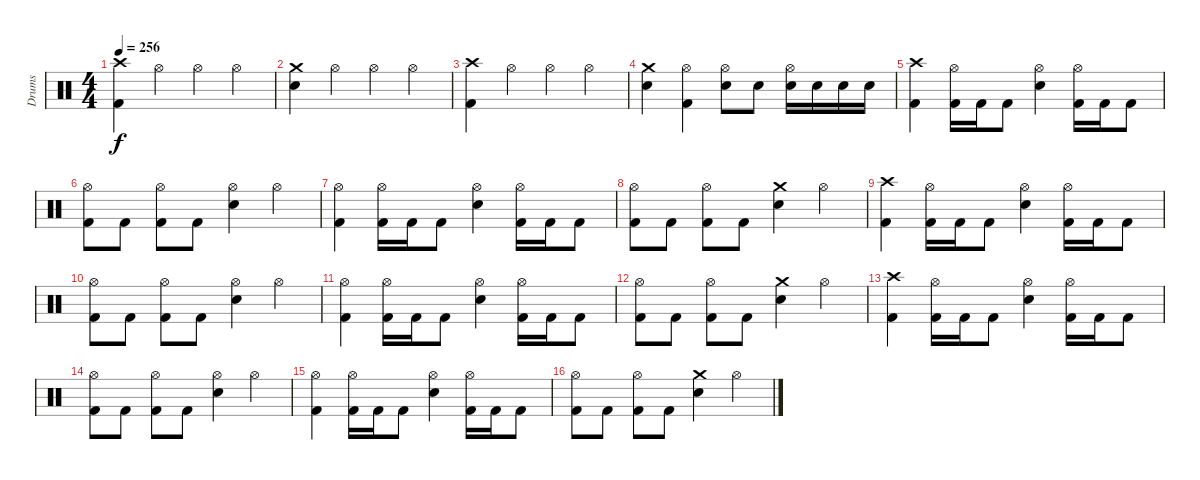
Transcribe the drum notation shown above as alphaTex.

\track ("Drums" "Drums") {instrument percussion}
\staff {score}
\articulation defaults
\ts (4 4)
\tempo 256
\clef neutral
\ks c
("Crash high (hit)" "Kick (hit) 2").4{dy f} "Hi-Hat (open)".4 "Hi-Hat (open)".4 "Hi-Hat (open)".4 |
("Crash medium (hit)" "Electric Snare (hit)").4 "Hi-Hat (open)".4 "Hi-Hat (open)".4 "Hi-Hat (open)".4 |
("Crash high (hit)" "Kick (hit) 2").4 "Hi-Hat (open)".4 "Hi-Hat (open)".4 "Hi-Hat (open)".4 |
("Crash medium (hit)" "Electric Snare (hit)").4 ("Hi-Hat (open)" "Kick (hit) 2").4 ("Hi-Hat (open)" "Electric Snare (hit)").8 "Electric Snare (hit)".8 ("Hi-Hat (open)" "Electric Snare (hit)").16 "Electric Snare (hit)".16 "Electric Snare (hit)".16 "Electric Snare (hit)".16 |
("Crash high (hit)" "Kick (hit) 2").4 ("Hi-Hat (open)" "Kick (hit) 2").16 "Kick (hit) 2".16 "Kick (hit) 2".8 ("Hi-Hat (open)" "Electric Snare (hit)").4 ("Hi-Hat (open)" "Kick (hit) 2").16 "Kick (hit) 2".16 "Kick (hit) 2".8 |
("Hi-Hat (open)" "Kick (hit) 2").8 "Kick (hit) 2".8 ("Hi-Hat (open)" "Kick (hit) 2").8 "Kick (hit) 2".8 ("Hi-Hat (open)" "Electric Snare (hit)").4 "Hi-Hat (open)".4 |
("Hi-Hat (open)" "Kick (hit) 2").4 ("Hi-Hat (open)" "Kick (hit) 2").16 "Kick (hit) 2".16 "Kick (hit) 2".8 ("Hi-Hat (open)" "Electric Snare (hit)").4 ("Hi-Hat (open)" "Kick (hit) 2").16 "Kick (hit) 2".16 "Kick (hit) 2".8 |
("Hi-Hat (open)" "Kick (hit) 2").8 "Kick (hit) 2".8 ("Hi-Hat (open)" "Kick (hit) 2").8 "Kick (hit) 2".8 ("Crash medium (hit)" "Electric Snare (hit)").4 "Hi-Hat (open)".4 |
("Crash high (hit)" "Kick (hit) 2").4 ("Hi-Hat (open)" "Kick (hit) 2").16 "Kick (hit) 2".16 "Kick (hit) 2".8 ("Hi-Hat (open)" "Electric Snare (hit)").4 ("Hi-Hat (open)" "Kick (hit) 2").16 "Kick (hit) 2".16 "Kick (hit) 2".8 |
("Hi-Hat (open)" "Kick (hit) 2").8 "Kick (hit) 2".8 ("Hi-Hat (open)" "Kick (hit) 2").8 "Kick (hit) 2".8 ("Hi-Hat (open)" "Electric Snare (hit)").4 "Hi-Hat (open)".4 |
("Hi-Hat (open)" "Kick (hit) 2").4 ("Hi-Hat (open)" "Kick (hit) 2").16 "Kick (hit) 2".16 "Kick (hit) 2".8 ("Hi-Hat (open)" "Electric Snare (hit)").4 ("Hi-Hat (open)" "Kick (hit) 2").16 "Kick (hit) 2".16 "Kick (hit) 2".8 |
("Hi-Hat (open)" "Kick (hit) 2").8 "Kick (hit) 2".8 ("Hi-Hat (open)" "Kick (hit) 2").8 "Kick (hit) 2".8 ("Crash medium (hit)" "Electric Snare (hit)").4 "Hi-Hat (open)".4 |
("Crash high (hit)" "Kick (hit) 2").4 ("Hi-Hat (open)" "Kick (hit) 2").16 "Kick (hit) 2".16 "Kick (hit) 2".8 ("Hi-Hat (open)" "Electric Snare (hit)").4 ("Hi-Hat (open)" "Kick (hit) 2").16 "Kick (hit) 2".16 "Kick (hit) 2".8 |
("Hi-Hat (open)" "Kick (hit) 2").8 "Kick (hit) 2".8 ("Hi-Hat (open)" "Kick (hit) 2").8 "Kick (hit) 2".8 ("Hi-Hat (open)" "Electric Snare (hit)").4 "Hi-Hat (open)".4 |
("Hi-Hat (open)" "Kick (hit) 2").4 ("Hi-Hat (open)" "Kick (hit) 2").16 "Kick (hit) 2".16 "Kick (hit) 2".8 ("Hi-Hat (open)" "Electric Snare (hit)").4 ("Hi-Hat (open)" "Kick (hit) 2").16 "Kick (hit) 2".16 "Kick (hit) 2".8 |
("Hi-Hat (open)" "Kick (hit) 2").8 "Kick (hit) 2".8 ("Hi-Hat (open)" "Kick (hit) 2").8 "Kick (hit) 2".8 ("Crash medium (hit)" "Electric Snare (hit)").4 "Hi-Hat (open)".4
